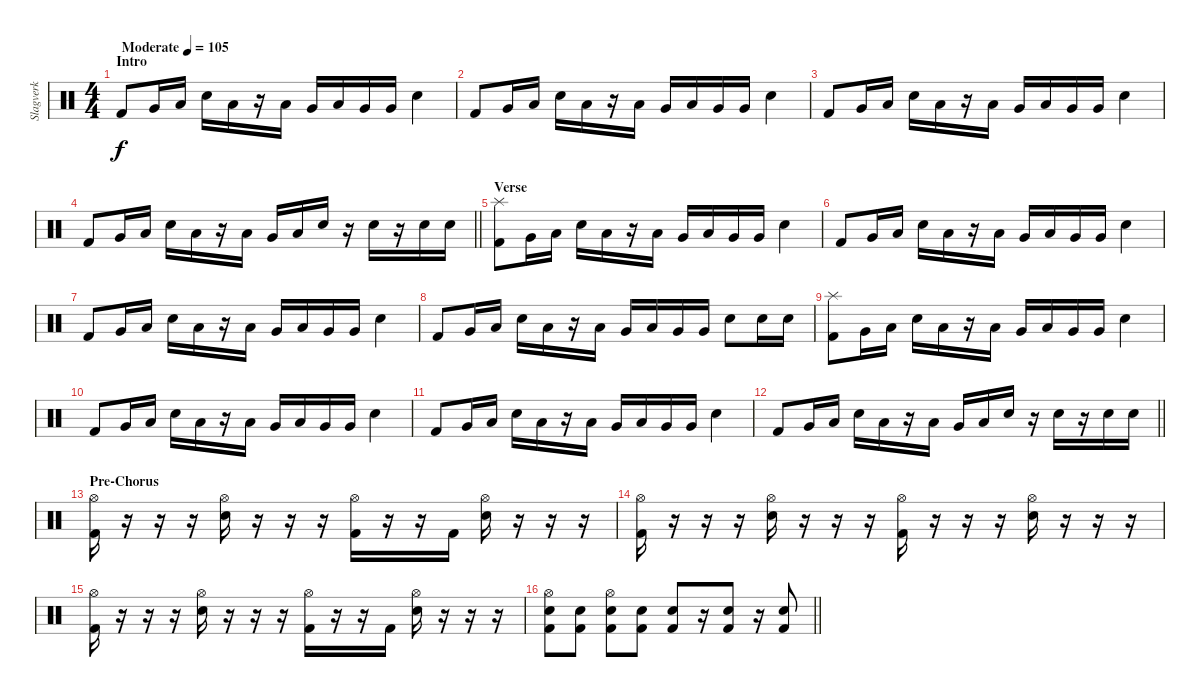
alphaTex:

\track ("Slagverk" "Slagverk") {instrument percussion}
\staff {score}
\articulation defaults
\ts (4 4)
\section ("" "Intro")
\tempo (105 "Moderate")
\clef neutral
\ks c "Kick (hit) 2".8{dy f} "Very Low Tom (hit)".16 "Low Tom (hit)".16 "Electric Snare (hit)".16 "Low Tom (hit)".16
r.16 "Low Tom (hit)".16 "Very Low Tom (hit)".16 "Low Tom (hit)".16 "Very Low Tom (hit)".16 "Very Low Tom (hit)".16 "Electric Snare (hit)".4 |
"Kick (hit) 2".8 "Very Low Tom (hit)".16 "Low Tom (hit)".16 "Electric Snare (hit)".16 "Low Tom (hit)".16 r.16 "Low Tom (hit)".16 "Very Low Tom (hit)".16 "Low Tom (hit)".16 "Very Low Tom (hit)".16 "Very Low Tom (hit)".16 "Electric Snare (hit)".4 |
"Kick (hit) 2".8 "Very Low Tom (hit)".16 "Low Tom (hit)".16 "Electric Snare (hit)".16 "Low Tom (hit)".16 r.16 "Low Tom (hit)".16 "Very Low Tom (hit)".16 "Low Tom (hit)".16 "Very Low Tom (hit)".16 "Very Low Tom (hit)".16 "Electric Snare (hit)".4 |
\barLineRight lightlight "Kick (hit) 2".8 "Very Low Tom (hit)".16 "Low Tom (hit)".16 "Electric Snare (hit)".16 "Low Tom (hit)".16
r.16 "Low Tom (hit)".16 "Very Low Tom (hit)".16 "Low Tom (hit)".16 "Electric Snare (hit)".16 r.16 "Electric Snare (hit)".16 r.16 "Electric Snare (hit)".16 "Electric Snare (hit)".16 |
\section ("" "Verse")
("Kick (hit) 2" "Splash (hit)").8 "Very Low Tom (hit)".16 "Low Tom (hit)".16 "Electric Snare (hit)".16 "Low Tom (hit)".16 r.16 "Low Tom (hit)".16 "Very Low Tom (hit)".16 "Low Tom (hit)".16 "Very Low Tom (hit)".16 "Very Low Tom (hit)".16 "Electric Snare (hit)".4 |
"Kick (hit) 2".8 "Very Low Tom (hit)".16 "Low Tom (hit)".16 "Electric Snare (hit)".16 "Low Tom (hit)".16 r.16 "Low Tom (hit)".16 "Very Low Tom (hit)".16 "Low Tom (hit)".16 "Very Low Tom (hit)".16 "Very Low Tom (hit)".16 "Electric Snare (hit)".4 |
"Kick (hit) 2".8 "Very Low Tom (hit)".16 "Low Tom (hit)".16 "Electric Snare (hit)".16 "Low Tom (hit)".16 r.16 "Low Tom (hit)".16 "Very Low Tom (hit)".16 "Low Tom (hit)".16 "Very Low Tom (hit)".16 "Very Low Tom (hit)".16 "Electric Snare (hit)".4 |
"Kick (hit) 2".8 "Very Low Tom (hit)".16 "Low Tom (hit)".16 "Electric Snare (hit)".16 "Low Tom (hit)".16 r.16 "Low Tom (hit)".16 "Very Low Tom (hit)".16 "Low Tom (hit)".16 "Very Low Tom (hit)".16 "Very Low Tom (hit)".16 "Electric Snare (hit)".8 "Electric Snare (hit)".16 "Electric Snare (hit)".16 |
("Kick (hit) 2" "Splash (hit)").8 "Very Low Tom (hit)".16 "Low Tom (hit)".16 "Electric Snare (hit)".16 "Low Tom (hit)".16 r.16 "Low Tom (hit)".16 "Very Low Tom (hit)".16 "Low Tom (hit)".16 "Very Low Tom (hit)".16 "Very Low Tom (hit)".16 "Electric Snare (hit)".4 |
"Kick (hit) 2".8 "Very Low Tom (hit)".16 "Low Tom (hit)".16 "Electric Snare (hit)".16 "Low Tom (hit)".16 r.16 "Low Tom (hit)".16 "Very Low Tom (hit)".16 "Low Tom (hit)".16 "Very Low Tom (hit)".16 "Very Low Tom (hit)".16 "Electric Snare (hit)".4 |
"Kick (hit) 2".8 "Very Low Tom (hit)".16 "Low Tom (hit)".16 "Electric Snare (hit)".16 "Low Tom (hit)".16 r.16 "Low Tom (hit)".16 "Very Low Tom (hit)".16 "Low Tom (hit)".16 "Very Low Tom (hit)".16 "Very Low Tom (hit)".16 "Electric Snare (hit)".4 |
\barLineRight lightlight "Kick (hit) 2".8 "Very Low Tom (hit)".16 "Low Tom (hit)".16 "Electric Snare (hit)".16 "Low Tom (hit)".16
r.16 "Low Tom (hit)".16 "Very Low Tom (hit)".16 "Low Tom (hit)".16 "Electric Snare (hit)".16 r.16 "Electric Snare (hit)".16 r.16 "Electric Snare (hit)".16 "Electric Snare (hit)".16 |
\section ("" "Pre-Chorus")
("Hi-Hat (open)" "Kick (hit) 2").16 r.16 r.16 r.16 ("Hi-Hat (open)" "Electric Snare (hit)").16 r.16 r.16 r.16 ("Hi-Hat (open)" "Kick (hit) 2").16 r.16 r.16 "Kick (hit) 2".16 ("Hi-Hat (open)" "Electric Snare (hit)").16 r.16 r.16 r.16 |
("Hi-Hat (open)" "Kick (hit) 2").16 r.16 r.16 r.16 ("Hi-Hat (open)" "Electric Snare (hit)").16 r.16 r.16 r.16 ("Hi-Hat (open)" "Kick (hit) 2").16 r.16 r.16 r.16 ("Hi-Hat (open)" "Electric Snare (hit)").16 r.16 r.16 r.16 |
("Hi-Hat (open)" "Kick (hit) 2").16 r.16 r.16 r.16 ("Hi-Hat (open)" "Electric Snare (hit)").16 r.16 r.16 r.16 ("Hi-Hat (open)" "Kick (hit) 2").16 r.16 r.16 "Kick (hit) 2".16 ("Hi-Hat (open)" "Electric Snare (hit)").16 r.16 r.16 r.16 |
\barLineRight lightlight
("Hi-Hat (open)" "Electric Snare (hit)" "Kick (hit) 2").8 ("Electric Snare (hit)" "Kick (hit) 2").8 ("Hi-Hat (open)" "Electric Snare (hit)" "Kick (hit) 2").8 ("Electric Snare (hit)" "Kick (hit) 2").8 ("Electric Snare (hit)" "Kick (hit) 2").8 r.16 ("Electric Snare (hit)" "Kick (hit) 2").8 r.16 ("Electric Snare (hit)" "Kick (hit) 2").8
